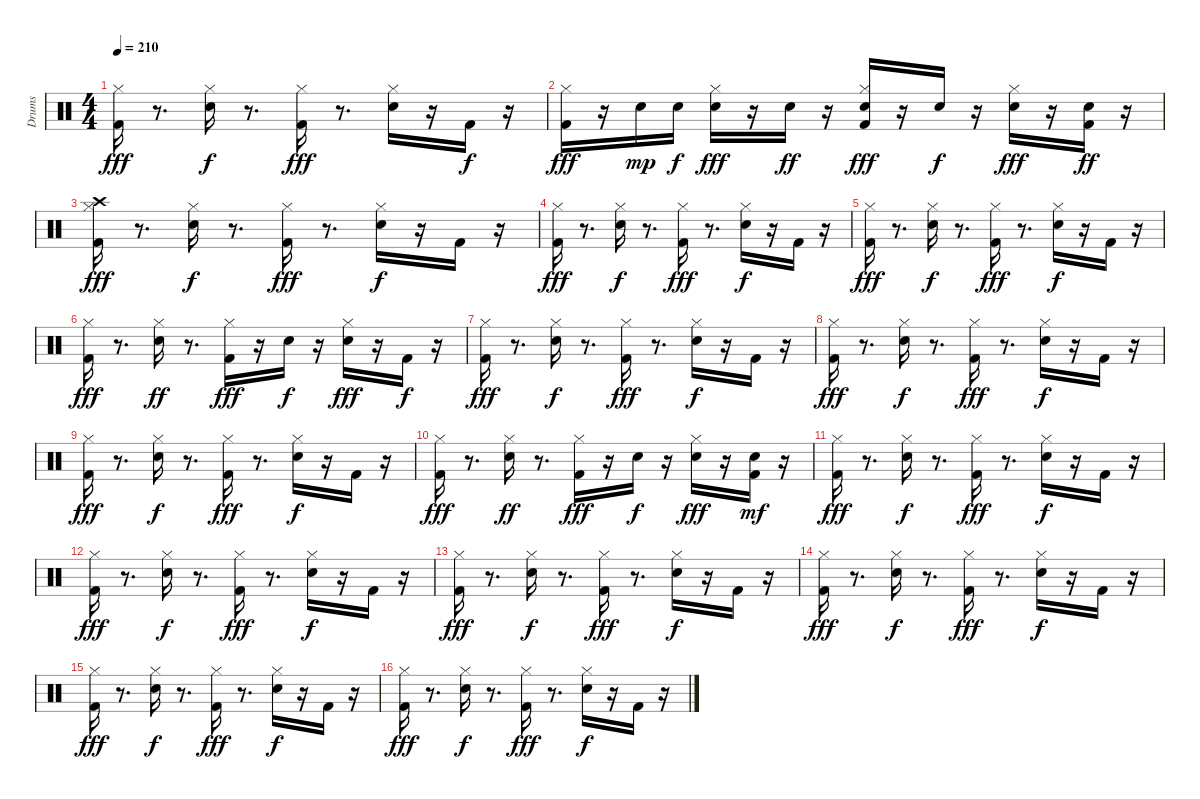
\track ("Drums " "Drums ") {instrument percussion}
\staff {score}
\articulation defaults
\ts (4 4)
\tempo 210
\clef neutral
\ks c
("Kick (hit) 2" "Hi-Hat (closed)").16{dy fff} r.8{d} ("Snare (hit) 2" "Hi-Hat (closed)").16{dy f} r.8{d} ("Kick (hit) 2" "Hi-Hat (closed)").16{dy fff} r.8{d} ("Snare (hit) 2" "Hi-Hat (closed)").16 r.16 "Kick (hit) 2".16{dy f} r.16 |
("Kick (hit) 2" "Hi-Hat (closed)").16{dy fff} r.16 "Snare (hit) 2".16{dy mp} "Snare (hit) 2".16{dy f} ("Snare (hit) 2" "Hi-Hat (closed)").16{dy fff} r.16 "Snare (hit) 2".16{dy ff} r.16 ("Kick (hit) 2" "Snare (hit) 2" "Hi-Hat (closed)").16{dy fff} r.16 "Snare (hit) 2".16{dy f} r.16 ("Snare (hit) 2" "Hi-Hat (closed)").16{dy fff} r.16 ("Kick (hit) 2" "Snare (hit) 2").16{dy ff} r.16 |
("Kick (hit) 2" "Hi-Hat (closed)" "Crash high (hit)").16{dy fff} r.8{d} ("Snare (hit) 2" "Hi-Hat (closed)").16{dy f} r.8{d} ("Kick (hit) 2" "Hi-Hat (closed)").16{dy fff} r.8{d} ("Snare (hit) 2" "Hi-Hat (closed)").16{dy f} r.16 "Kick (hit) 2".16 r.16 |
("Kick (hit) 2" "Hi-Hat (closed)").16{dy fff} r.8{d} ("Snare (hit) 2" "Hi-Hat (closed)").16{dy f} r.8{d} ("Kick (hit) 2" "Hi-Hat (closed)").16{dy fff} r.8{d} ("Snare (hit) 2" "Hi-Hat (closed)").16{dy f} r.16 "Kick (hit) 2".16 r.16 |
("Kick (hit) 2" "Hi-Hat (closed)").16{dy fff} r.8{d} ("Snare (hit) 2" "Hi-Hat (closed)").16{dy f} r.8{d} ("Kick (hit) 2" "Hi-Hat (closed)").16{dy fff} r.8{d} ("Snare (hit) 2" "Hi-Hat (closed)").16{dy f} r.16 "Kick (hit) 2".16 r.16 |
("Kick (hit) 2" "Hi-Hat (closed)").16{dy fff} r.8{d} ("Snare (hit) 2" "Hi-Hat (closed)").16{dy ff} r.8{d} ("Kick (hit) 2" "Hi-Hat (closed)").16{dy fff} r.16 "Snare (hit) 2".16{dy f} r.16 ("Snare (hit) 2" "Hi-Hat (closed)").16{dy fff} r.16 "Kick (hit) 2".16{dy f} r.16 |
("Kick (hit) 2" "Hi-Hat (closed)").16{dy fff} r.8{d} ("Snare (hit) 2" "Hi-Hat (closed)").16{dy f} r.8{d} ("Kick (hit) 2" "Hi-Hat (closed)").16{dy fff} r.8{d} ("Snare (hit) 2" "Hi-Hat (closed)").16{dy f} r.16 "Kick (hit) 2".16 r.16 |
("Kick (hit) 2" "Hi-Hat (closed)").16{dy fff} r.8{d} ("Snare (hit) 2" "Hi-Hat (closed)").16{dy f} r.8{d} ("Kick (hit) 2" "Hi-Hat (closed)").16{dy fff} r.8{d} ("Snare (hit) 2" "Hi-Hat (closed)").16{dy f} r.16 "Kick (hit) 2".16 r.16 |
("Kick (hit) 2" "Hi-Hat (closed)").16{dy fff} r.8{d} ("Snare (hit) 2" "Hi-Hat (closed)").16{dy f} r.8{d} ("Kick (hit) 2" "Hi-Hat (closed)").16{dy fff} r.8{d} ("Snare (hit) 2" "Hi-Hat (closed)").16{dy f} r.16 "Kick (hit) 2".16 r.16 |
("Kick (hit) 2" "Hi-Hat (closed)").16{dy fff} r.8{d} ("Snare (hit) 2" "Hi-Hat (closed)").16{dy ff} r.8{d} ("Kick (hit) 2" "Hi-Hat (closed)").16{dy fff} r.16 "Snare (hit) 2".16{dy f} r.16 ("Snare (hit) 2" "Hi-Hat (closed)").16{dy fff} r.16 ("Kick (hit) 2" "Snare (hit) 2").16{dy mf} r.16 |
("Kick (hit) 2" "Hi-Hat (closed)").16{dy fff} r.8{d} ("Snare (hit) 2" "Hi-Hat (closed)").16{dy f} r.8{d} ("Kick (hit) 2" "Hi-Hat (closed)").16{dy fff} r.8{d} ("Snare (hit) 2" "Hi-Hat (closed)").16{dy f} r.16 "Kick (hit) 2".16 r.16 |
("Kick (hit) 2" "Hi-Hat (closed)").16{dy fff} r.8{d} ("Snare (hit) 2" "Hi-Hat (closed)").16{dy f} r.8{d} ("Kick (hit) 2" "Hi-Hat (closed)").16{dy fff} r.8{d} ("Snare (hit) 2" "Hi-Hat (closed)").16{dy f} r.16 "Kick (hit) 2".16 r.16 |
("Kick (hit) 2" "Hi-Hat (closed)").16{dy fff} r.8{d} ("Snare (hit) 2" "Hi-Hat (closed)").16{dy f} r.8{d} ("Kick (hit) 2" "Hi-Hat (closed)").16{dy fff} r.8{d} ("Snare (hit) 2" "Hi-Hat (closed)").16{dy f} r.16 "Kick (hit) 2".16 r.16 |
("Kick (hit) 2" "Hi-Hat (closed)").16{dy fff} r.8{d} ("Snare (hit) 2" "Hi-Hat (closed)").16{dy f} r.8{d} ("Kick (hit) 2" "Hi-Hat (closed)").16{dy fff} r.8{d} ("Snare (hit) 2" "Hi-Hat (closed)").16{dy f} r.16 "Kick (hit) 2".16 r.16 |
("Kick (hit) 2" "Hi-Hat (closed)").16{dy fff} r.8{d} ("Snare (hit) 2" "Hi-Hat (closed)").16{dy f} r.8{d} ("Kick (hit) 2" "Hi-Hat (closed)").16{dy fff} r.8{d} ("Snare (hit) 2" "Hi-Hat (closed)").16{dy f} r.16 "Kick (hit) 2".16 r.16 |
("Kick (hit) 2" "Hi-Hat (closed)").16{dy fff} r.8{d} ("Snare (hit) 2" "Hi-Hat (closed)").16{dy f} r.8{d} ("Kick (hit) 2" "Hi-Hat (closed)").16{dy fff} r.8{d} ("Snare (hit) 2" "Hi-Hat (closed)").16{dy f} r.16 "Kick (hit) 2".16 r.16
